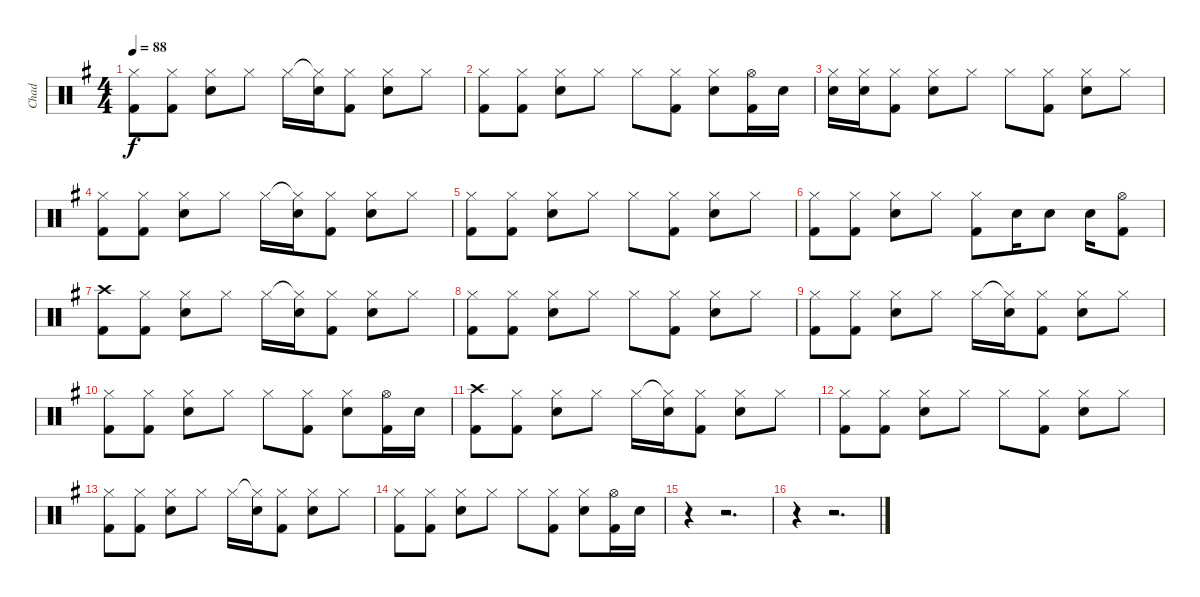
\track ("Chad" "Chad") {instrument percussion}
\staff {score}
\articulation defaults
\ts (4 4)
\tempo 88
\clef neutral
\ks g
("Hi-Hat (closed)" "Kick (hit) 2").8{dy f} ("Hi-Hat (closed)" "Kick (hit) 2").8 ("Hi-Hat (closed)" "Snare (hit) 2").8 "Hi-Hat (closed)".8 "Hi-Hat (closed)".16 ("Hi-Hat (closed)"{t} "Snare (hit) 2").16 ("Hi-Hat (closed)" "Kick (hit) 2").8 ("Hi-Hat (closed)" "Snare (hit) 2").8 "Hi-Hat (closed)".8 |
("Hi-Hat (closed)" "Kick (hit) 2").8 ("Hi-Hat (closed)" "Kick (hit) 2").8 ("Hi-Hat (closed)" "Snare (hit) 2").8 "Hi-Hat (closed)".8 "Hi-Hat (closed)".8 ("Hi-Hat (closed)" "Kick (hit) 2").8 ("Hi-Hat (closed)" "Snare (hit) 2").8 ("Hi-Hat (open)" "Kick (hit) 2").16 "Snare (hit)".16 |
("Hi-Hat (closed)" "Snare (hit) 2").16 ("Hi-Hat (closed)" "Snare (hit) 2").16 ("Hi-Hat (closed)" "Kick (hit) 2").8 ("Hi-Hat (closed)" "Snare (hit) 2").8 "Hi-Hat (closed)".8 "Hi-Hat (closed)".8 ("Hi-Hat (closed)" "Kick (hit) 2").8 ("Hi-Hat (closed)" "Snare (hit) 2").8 "Hi-Hat (closed)".8 |
("Hi-Hat (closed)" "Kick (hit) 2").8 ("Hi-Hat (closed)" "Kick (hit) 2").8 ("Hi-Hat (closed)" "Snare (hit) 2").8 "Hi-Hat (closed)".8 "Hi-Hat (closed)".16 ("Hi-Hat (closed)"{t} "Snare (hit) 2").16 ("Hi-Hat (closed)" "Kick (hit) 2").8 ("Hi-Hat (closed)" "Snare (hit) 2").8 "Hi-Hat (closed)".8 |
("Hi-Hat (closed)" "Kick (hit) 2").8 ("Hi-Hat (closed)" "Kick (hit) 2").8 ("Hi-Hat (closed)" "Snare (hit) 2").8 "Hi-Hat (closed)".8 "Hi-Hat (closed)".8 ("Hi-Hat (closed)" "Kick (hit) 2").8 ("Hi-Hat (closed)" "Snare (hit) 2").8 "Hi-Hat (closed)".8 |
("Hi-Hat (closed)" "Kick (hit) 2").8 ("Hi-Hat (closed)" "Kick (hit) 2").8 ("Hi-Hat (closed)" "Snare (hit) 2").8 "Hi-Hat (closed)".8 ("Hi-Hat (closed)" "Kick (hit) 2").8 "Snare (hit) 2".16 "Snare (hit) 2".8 "Snare (hit) 2".16 ("Hi-Hat (open)" "Kick (hit) 2").8 |
("Crash high (hit)" "Kick (hit) 2").8 ("Hi-Hat (closed)" "Kick (hit) 2").8 ("Hi-Hat (closed)" "Snare (hit) 2").8 "Hi-Hat (closed)".8 "Hi-Hat (closed)".16 ("Hi-Hat (closed)"{t} "Snare (hit) 2").16 ("Hi-Hat (closed)" "Kick (hit) 2").8 ("Hi-Hat (closed)" "Snare (hit) 2").8 "Hi-Hat (closed)".8 |
("Hi-Hat (closed)" "Kick (hit) 2").8 ("Hi-Hat (closed)" "Kick (hit) 2").8 ("Hi-Hat (closed)" "Snare (hit) 2").8 "Hi-Hat (closed)".8 "Hi-Hat (closed)".8 ("Hi-Hat (closed)" "Kick (hit) 2").8 ("Hi-Hat (closed)" "Snare (hit) 2").8 "Hi-Hat (closed)".8 |
("Hi-Hat (closed)" "Kick (hit) 2").8 ("Hi-Hat (closed)" "Kick (hit) 2").8 ("Hi-Hat (closed)" "Snare (hit) 2").8 "Hi-Hat (closed)".8 "Hi-Hat (closed)".16 ("Hi-Hat (closed)"{t} "Snare (hit) 2").16 ("Hi-Hat (closed)" "Kick (hit) 2").8 ("Hi-Hat (closed)" "Snare (hit) 2").8 "Hi-Hat (closed)".8 |
("Hi-Hat (closed)" "Kick (hit) 2").8 ("Hi-Hat (closed)" "Kick (hit) 2").8 ("Hi-Hat (closed)" "Snare (hit) 2").8 "Hi-Hat (closed)".8 "Hi-Hat (closed)".8 ("Hi-Hat (closed)" "Kick (hit) 2").8 ("Hi-Hat (closed)" "Snare (hit) 2").8 ("Hi-Hat (open)" "Kick (hit) 2").16 "Snare (hit)".16 |
("Crash high (hit)" "Kick (hit) 2").8 ("Hi-Hat (closed)" "Kick (hit) 2").8 ("Hi-Hat (closed)" "Snare (hit) 2").8 "Hi-Hat (closed)".8 "Hi-Hat (closed)".16 ("Hi-Hat (closed)"{t} "Snare (hit) 2").16 ("Hi-Hat (closed)" "Kick (hit) 2").8 ("Hi-Hat (closed)" "Snare (hit) 2").8 "Hi-Hat (closed)".8 |
("Hi-Hat (closed)" "Kick (hit) 2").8 ("Hi-Hat (closed)" "Kick (hit) 2").8 ("Hi-Hat (closed)" "Snare (hit) 2").8 "Hi-Hat (closed)".8 "Hi-Hat (closed)".8 ("Hi-Hat (closed)" "Kick (hit) 2").8 ("Hi-Hat (closed)" "Snare (hit) 2").8 "Hi-Hat (closed)".8 |
("Hi-Hat (closed)" "Kick (hit) 2").8 ("Hi-Hat (closed)" "Kick (hit) 2").8 ("Hi-Hat (closed)" "Snare (hit) 2").8 "Hi-Hat (closed)".8 "Hi-Hat (closed)".16 ("Hi-Hat (closed)"{t} "Snare (hit) 2").16 ("Hi-Hat (closed)" "Kick (hit) 2").8 ("Hi-Hat (closed)" "Snare (hit) 2").8 "Hi-Hat (closed)".8 |
("Hi-Hat (closed)" "Kick (hit) 2").8 ("Hi-Hat (closed)" "Kick (hit) 2").8 ("Hi-Hat (closed)" "Snare (hit) 2").8 "Hi-Hat (closed)".8 "Hi-Hat (closed)".8 ("Hi-Hat (closed)" "Kick (hit) 2").8 ("Hi-Hat (closed)" "Snare (hit) 2").8 ("Hi-Hat (open)" "Kick (hit) 2").16 "Snare (hit)".16 |
r.4 r.2{d} |
r.4 r.2{d}
